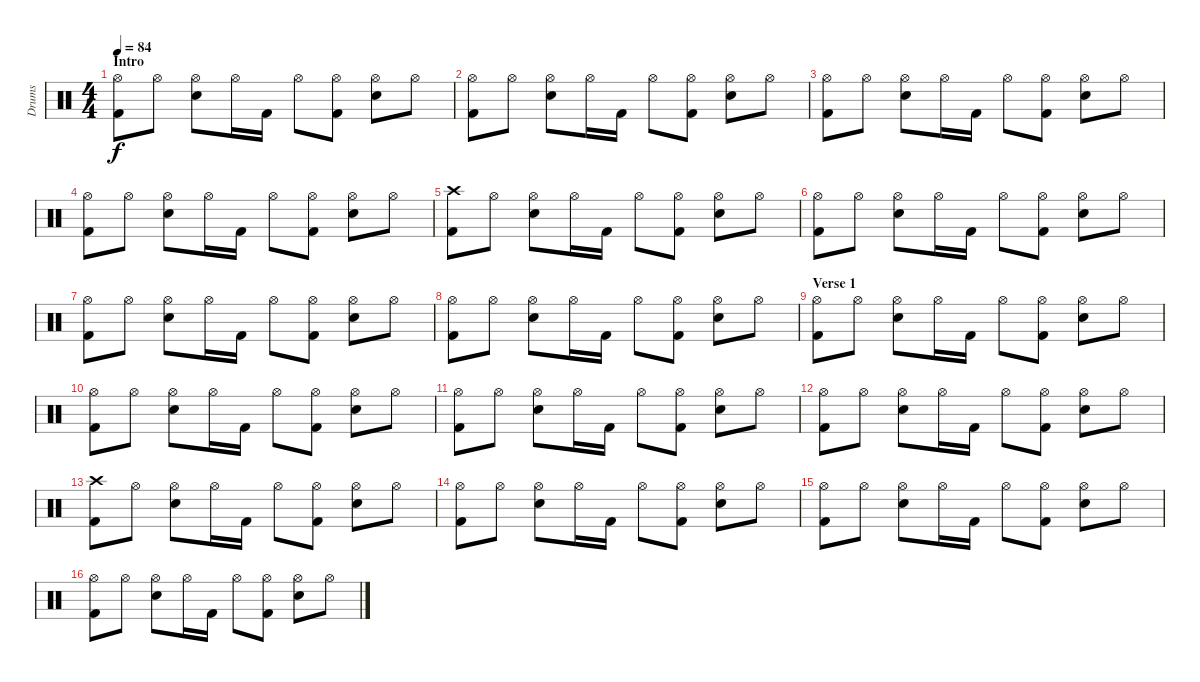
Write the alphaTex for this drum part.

\track ("Drums" "Drums") {instrument percussion}
\staff {score}
\articulation defaults
\ts (4 4)
\section ("" "Intro")
\tempo 84
\clef neutral
\ks c
("Hi-Hat (open)" "Kick (hit) 2").8{dy f} "Hi-Hat (open)".8 ("Hi-Hat (open)" "Snare (hit) 2").8 "Hi-Hat (open)".16 "Kick (hit) 2".16 "Hi-Hat (open)".8 ("Hi-Hat (open)" "Kick (hit) 2").8 ("Hi-Hat (open)" "Snare (hit) 2").8 "Hi-Hat (open)".8 |
("Hi-Hat (open)" "Kick (hit) 2").8 "Hi-Hat (open)".8 ("Hi-Hat (open)" "Snare (hit) 2").8 "Hi-Hat (open)".16 "Kick (hit) 2".16 "Hi-Hat (open)".8 ("Hi-Hat (open)" "Kick (hit) 2").8 ("Hi-Hat (open)" "Snare (hit) 2").8 "Hi-Hat (open)".8 |
("Hi-Hat (open)" "Kick (hit) 2").8 "Hi-Hat (open)".8 ("Hi-Hat (open)" "Snare (hit) 2").8 "Hi-Hat (open)".16 "Kick (hit) 2".16 "Hi-Hat (open)".8 ("Hi-Hat (open)" "Kick (hit) 2").8 ("Hi-Hat (open)" "Snare (hit) 2").8 "Hi-Hat (open)".8 |
("Hi-Hat (open)" "Kick (hit) 2").8 "Hi-Hat (open)".8 ("Hi-Hat (open)" "Snare (hit) 2").8 "Hi-Hat (open)".16 "Kick (hit) 2".16 "Hi-Hat (open)".8 ("Hi-Hat (open)" "Kick (hit) 2").8 ("Hi-Hat (open)" "Snare (hit) 2").8 "Hi-Hat (open)".8 |
("Crash high (hit)" "Kick (hit) 2").8 "Hi-Hat (open)".8 ("Hi-Hat (open)" "Snare (hit) 2").8 "Hi-Hat (open)".16 "Kick (hit) 2".16 "Hi-Hat (open)".8 ("Hi-Hat (open)" "Kick (hit) 2").8 ("Hi-Hat (open)" "Snare (hit) 2").8 "Hi-Hat (open)".8 |
("Hi-Hat (open)" "Kick (hit) 2").8 "Hi-Hat (open)".8 ("Hi-Hat (open)" "Snare (hit) 2").8 "Hi-Hat (open)".16 "Kick (hit) 2".16 "Hi-Hat (open)".8 ("Hi-Hat (open)" "Kick (hit) 2").8 ("Hi-Hat (open)" "Snare (hit) 2").8 "Hi-Hat (open)".8 |
("Hi-Hat (open)" "Kick (hit) 2").8 "Hi-Hat (open)".8 ("Hi-Hat (open)" "Snare (hit) 2").8 "Hi-Hat (open)".16 "Kick (hit) 2".16 "Hi-Hat (open)".8 ("Hi-Hat (open)" "Kick (hit) 2").8 ("Hi-Hat (open)" "Snare (hit) 2").8 "Hi-Hat (open)".8 |
("Hi-Hat (open)" "Kick (hit) 2").8 "Hi-Hat (open)".8 ("Hi-Hat (open)" "Snare (hit) 2").8 "Hi-Hat (open)".16 "Kick (hit) 2".16 "Hi-Hat (open)".8 ("Hi-Hat (open)" "Kick (hit) 2").8 ("Hi-Hat (open)" "Snare (hit) 2").8 "Hi-Hat (open)".8 |
\section ("" "Verse 1")
("Hi-Hat (open)" "Kick (hit) 2").8 "Hi-Hat (open)".8 ("Hi-Hat (open)" "Snare (hit) 2").8 "Hi-Hat (open)".16 "Kick (hit) 2".16 "Hi-Hat (open)".8 ("Hi-Hat (open)" "Kick (hit) 2").8 ("Hi-Hat (open)" "Snare (hit) 2").8 "Hi-Hat (open)".8 |
("Hi-Hat (open)" "Kick (hit) 2").8 "Hi-Hat (open)".8 ("Hi-Hat (open)" "Snare (hit) 2").8 "Hi-Hat (open)".16 "Kick (hit) 2".16 "Hi-Hat (open)".8 ("Hi-Hat (open)" "Kick (hit) 2").8 ("Hi-Hat (open)" "Snare (hit) 2").8 "Hi-Hat (open)".8 |
("Hi-Hat (open)" "Kick (hit) 2").8 "Hi-Hat (open)".8 ("Hi-Hat (open)" "Snare (hit) 2").8 "Hi-Hat (open)".16 "Kick (hit) 2".16 "Hi-Hat (open)".8 ("Hi-Hat (open)" "Kick (hit) 2").8 ("Hi-Hat (open)" "Snare (hit) 2").8 "Hi-Hat (open)".8 |
("Hi-Hat (open)" "Kick (hit) 2").8 "Hi-Hat (open)".8 ("Hi-Hat (open)" "Snare (hit) 2").8 "Hi-Hat (open)".16 "Kick (hit) 2".16 "Hi-Hat (open)".8 ("Hi-Hat (open)" "Kick (hit) 2").8 ("Hi-Hat (open)" "Snare (hit) 2").8 "Hi-Hat (open)".8 |
("Crash high (hit)" "Kick (hit) 2").8 "Hi-Hat (open)".8 ("Hi-Hat (open)" "Snare (hit) 2").8 "Hi-Hat (open)".16 "Kick (hit) 2".16 "Hi-Hat (open)".8 ("Hi-Hat (open)" "Kick (hit) 2").8 ("Hi-Hat (open)" "Snare (hit) 2").8 "Hi-Hat (open)".8 |
("Hi-Hat (open)" "Kick (hit) 2").8 "Hi-Hat (open)".8 ("Hi-Hat (open)" "Snare (hit) 2").8 "Hi-Hat (open)".16 "Kick (hit) 2".16 "Hi-Hat (open)".8 ("Hi-Hat (open)" "Kick (hit) 2").8 ("Hi-Hat (open)" "Snare (hit) 2").8 "Hi-Hat (open)".8 |
("Hi-Hat (open)" "Kick (hit) 2").8 "Hi-Hat (open)".8 ("Hi-Hat (open)" "Snare (hit) 2").8 "Hi-Hat (open)".16 "Kick (hit) 2".16 "Hi-Hat (open)".8 ("Hi-Hat (open)" "Kick (hit) 2").8 ("Hi-Hat (open)" "Snare (hit) 2").8 "Hi-Hat (open)".8 |
("Hi-Hat (open)" "Kick (hit) 2").8 "Hi-Hat (open)".8 ("Hi-Hat (open)" "Snare (hit) 2").8 "Hi-Hat (open)".16 "Kick (hit) 2".16 "Hi-Hat (open)".8 ("Hi-Hat (open)" "Kick (hit) 2").8 ("Hi-Hat (open)" "Snare (hit) 2").8 "Hi-Hat (open)".8
